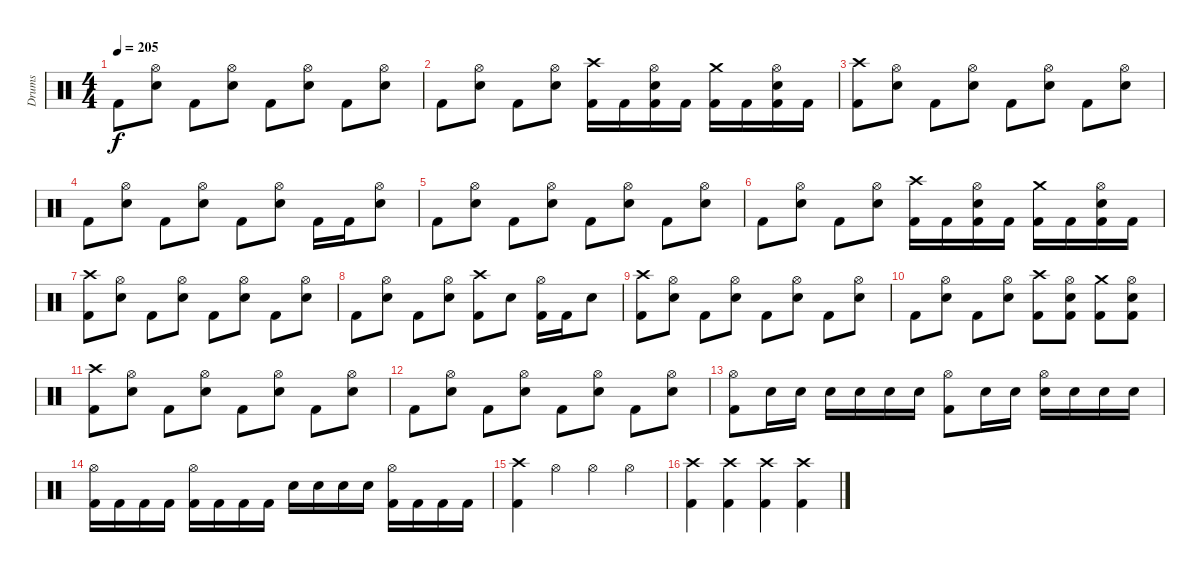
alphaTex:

\track ("Drums" "Drums") {instrument percussion bank 169}
\staff {score}
\articulation defaults
\ts (4 4)
\tempo 205
\clef neutral
\ks c "Kick (hit) 2".8{dy f}
("Hi-Hat (open)" "Snare (hit) 2").8 "Kick (hit) 2".8 ("Hi-Hat (open)" "Snare (hit) 2").8 "Kick (hit) 2".8 ("Hi-Hat (open)" "Snare (hit) 2").8 "Kick (hit) 2".8 ("Hi-Hat (open)" "Snare (hit) 2").8 |
"Kick (hit) 2".8 ("Hi-Hat (open)" "Snare (hit) 2").8 "Kick (hit) 2".8 ("Hi-Hat (open)" "Snare (hit) 2").8 ("Crash high (hit)" "Kick (hit) 2").16 "Kick (hit) 2".16 ("Hi-Hat (open)" "Snare (hit) 2" "Kick (hit) 2").16 "Kick (hit) 2".16 ("Crash medium (hit)" "Kick (hit) 2").16 "Kick (hit) 2".16 ("Hi-Hat (open)" "Snare (hit) 2" "Kick (hit) 2").16 "Kick (hit) 2".16 |
("Crash high (hit)" "Kick (hit) 2").8 ("Hi-Hat (open)" "Snare (hit) 2").8 "Kick (hit) 2".8 ("Hi-Hat (open)" "Snare (hit) 2").8 "Kick (hit) 2".8 ("Hi-Hat (open)" "Snare (hit) 2").8 "Kick (hit) 2".8 ("Hi-Hat (open)" "Snare (hit) 2").8 |
"Kick (hit) 2".8 ("Hi-Hat (open)" "Snare (hit) 2").8 "Kick (hit) 2".8 ("Hi-Hat (open)" "Snare (hit) 2").8 "Kick (hit) 2".8 ("Hi-Hat (open)" "Snare (hit) 2").8 "Kick (hit) 2".16 "Kick (hit) 2".16 ("Hi-Hat (open)" "Snare (hit) 2").8 |
"Kick (hit) 2".8 ("Hi-Hat (open)" "Snare (hit) 2").8 "Kick (hit) 2".8 ("Hi-Hat (open)" "Snare (hit) 2").8 "Kick (hit) 2".8 ("Hi-Hat (open)" "Snare (hit) 2").8 "Kick (hit) 2".8 ("Hi-Hat (open)" "Snare (hit) 2").8 |
"Kick (hit) 2".8 ("Hi-Hat (open)" "Snare (hit) 2").8 "Kick (hit) 2".8 ("Hi-Hat (open)" "Snare (hit) 2").8 ("Crash high (hit)" "Kick (hit) 2").16 "Kick (hit) 2".16 ("Hi-Hat (open)" "Snare (hit) 2" "Kick (hit) 2").16 "Kick (hit) 2".16 ("Crash medium (hit)" "Kick (hit) 2").16 "Kick (hit) 2".16 ("Hi-Hat (open)" "Snare (hit) 2" "Kick (hit) 2").16 "Kick (hit) 2".16 |
("Crash high (hit)" "Kick (hit) 2").8 ("Hi-Hat (open)" "Snare (hit) 2").8 "Kick (hit) 2".8 ("Hi-Hat (open)" "Snare (hit) 2").8 "Kick (hit) 2".8 ("Hi-Hat (open)" "Snare (hit) 2").8 "Kick (hit) 2".8 ("Hi-Hat (open)" "Snare (hit) 2").8 |
"Kick (hit) 2".8 ("Hi-Hat (open)" "Snare (hit) 2").8 "Kick (hit) 2".8 ("Hi-Hat (open)" "Snare (hit) 2").8 ("Crash high (hit)" "Kick (hit) 2").8 "Snare (hit) 2".8 ("Hi-Hat (open)" "Kick (hit) 2").16 "Kick (hit) 2".16 "Snare (hit) 2".8 |
("Crash high (hit)" "Kick (hit) 2").8 ("Hi-Hat (open)" "Snare (hit) 2").8 "Kick (hit) 2".8 ("Hi-Hat (open)" "Snare (hit) 2").8 "Kick (hit) 2".8 ("Hi-Hat (open)" "Snare (hit) 2").8 "Kick (hit) 2".8 ("Hi-Hat (open)" "Snare (hit) 2").8 |
"Kick (hit) 2".8 ("Hi-Hat (open)" "Snare (hit) 2").8 "Kick (hit) 2".8 ("Hi-Hat (open)" "Snare (hit) 2").8 ("Crash high (hit)" "Kick (hit) 2").8 ("Hi-Hat (open)" "Snare (hit) 2" "Kick (hit) 2").8 ("Crash medium (hit)" "Kick (hit) 2").8 ("Hi-Hat (open)" "Snare (hit) 2" "Kick (hit) 2").8 |
("Crash high (hit)" "Kick (hit) 2").8 ("Hi-Hat (open)" "Snare (hit) 2").8 "Kick (hit) 2".8 ("Hi-Hat (open)" "Snare (hit) 2").8 "Kick (hit) 2".8 ("Hi-Hat (open)" "Snare (hit) 2").8 "Kick (hit) 2".8 ("Hi-Hat (open)" "Snare (hit) 2").8 |
"Kick (hit) 2".8 ("Hi-Hat (open)" "Snare (hit) 2").8 "Kick (hit) 2".8 ("Hi-Hat (open)" "Snare (hit) 2").8 "Kick (hit) 2".8 ("Hi-Hat (open)" "Snare (hit) 2").8 "Kick (hit) 2".8 ("Hi-Hat (open)" "Snare (hit) 2").8 |
("Hi-Hat (open)" "Kick (hit) 2").8 "Snare (hit) 2".16 "Snare (hit) 2".16 "Snare (hit) 2".16 "Snare (hit) 2".16 "Snare (hit) 2".16 "Snare (hit) 2".16 ("Hi-Hat (open)" "Kick (hit) 2").8 "Snare (hit) 2".16 "Snare (hit) 2".16 ("Hi-Hat (open)" "Snare (hit) 2").16 "Snare (hit) 2".16 "Snare (hit) 2".16 "Snare (hit) 2".16 |
("Hi-Hat (open)" "Kick (hit) 2").16 "Kick (hit) 2".16 "Kick (hit) 2".16 "Kick (hit) 2".16 ("Hi-Hat (open)" "Kick (hit) 2").16 "Kick (hit) 2".16 "Kick (hit) 2".16 "Kick (hit) 2".16 "Snare (hit) 2".16 "Snare (hit) 2".16 "Snare (hit) 2".16 "Snare (hit) 2".16 ("Hi-Hat (open)" "Kick (hit) 2").16 "Kick (hit) 2".16 "Kick (hit) 2".16 "Kick (hit) 2".16 |
("Crash high (hit)" "Kick (hit) 2").4 "Hi-Hat (open)".4 "Hi-Hat (open)".4 "Hi-Hat (open)".4 |
("Crash high (hit)" "Kick (hit) 2").4 ("Crash high (hit)" "Kick (hit) 2").4 ("Crash high (hit)" "Kick (hit) 2").4 ("Crash high (hit)" "Kick (hit) 2").4
